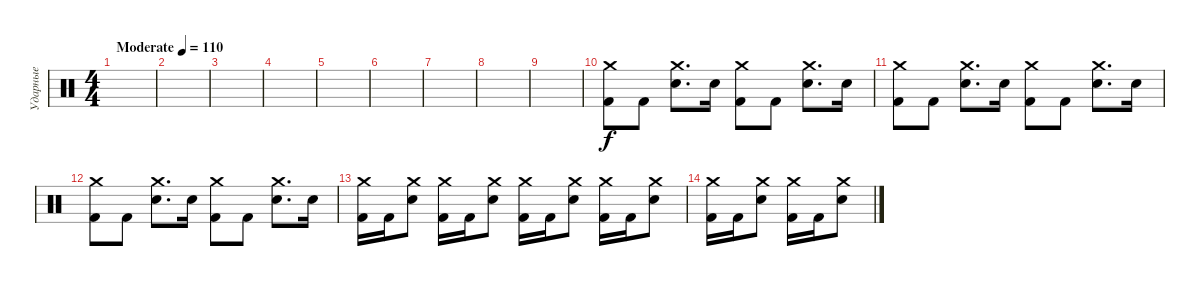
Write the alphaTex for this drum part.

\track ("Ударные" "Ударные") {instrument percussion}
\staff {score}
\articulation defaults
\ts (4 4)
\tempo (110 "Moderate")
\clef neutral
\ks c
|
|
|
|
|
|
|
|
|
("Crash medium (hit)" "Kick (hit) 2").8 "Kick (hit) 2".8 ("Crash medium (hit)" "Snare (hit) 2").8{d} "Snare (hit) 2".16 ("Crash medium (hit)" "Kick (hit) 2").8 "Kick (hit) 2".8 ("Crash medium (hit)" "Snare (hit) 2").8{d} "Snare (hit) 2".16 |
("Crash medium (hit)" "Kick (hit) 2").8 "Kick (hit) 2".8 ("Crash medium (hit)" "Snare (hit) 2").8{d} "Snare (hit) 2".16 ("Crash medium (hit)" "Kick (hit) 2").8 "Kick (hit) 2".8 ("Crash medium (hit)" "Snare (hit) 2").8{d} "Snare (hit) 2".16 |
("Crash medium (hit)" "Kick (hit) 2").8 "Kick (hit) 2".8 ("Crash medium (hit)" "Snare (hit) 2").8{d} "Snare (hit) 2".16 ("Crash medium (hit)" "Kick (hit) 2").8 "Kick (hit) 2".8 ("Crash medium (hit)" "Snare (hit) 2").8{d} "Snare (hit) 2".16 |
("Crash medium (hit)" "Kick (hit) 2").16 "Kick (hit) 2".16 ("Crash medium (hit)" "Snare (hit) 2").8 ("Crash medium (hit)" "Kick (hit) 2").16 "Kick (hit) 2".16 ("Crash medium (hit)" "Snare (hit) 2").8 ("Crash medium (hit)" "Kick (hit) 2").16 "Kick (hit) 2".16 ("Crash medium (hit)" "Snare (hit) 2").8 ("Crash medium (hit)" "Kick (hit) 2").16 "Kick (hit) 2".16 ("Crash medium (hit)" "Snare (hit) 2").8 |
("Crash medium (hit)" "Kick (hit) 2").16 "Kick (hit) 2".16 ("Crash medium (hit)" "Snare (hit) 2").8 ("Crash medium (hit)" "Kick (hit) 2").16 "Kick (hit) 2".16 ("Crash medium (hit)" "Snare (hit) 2").8
